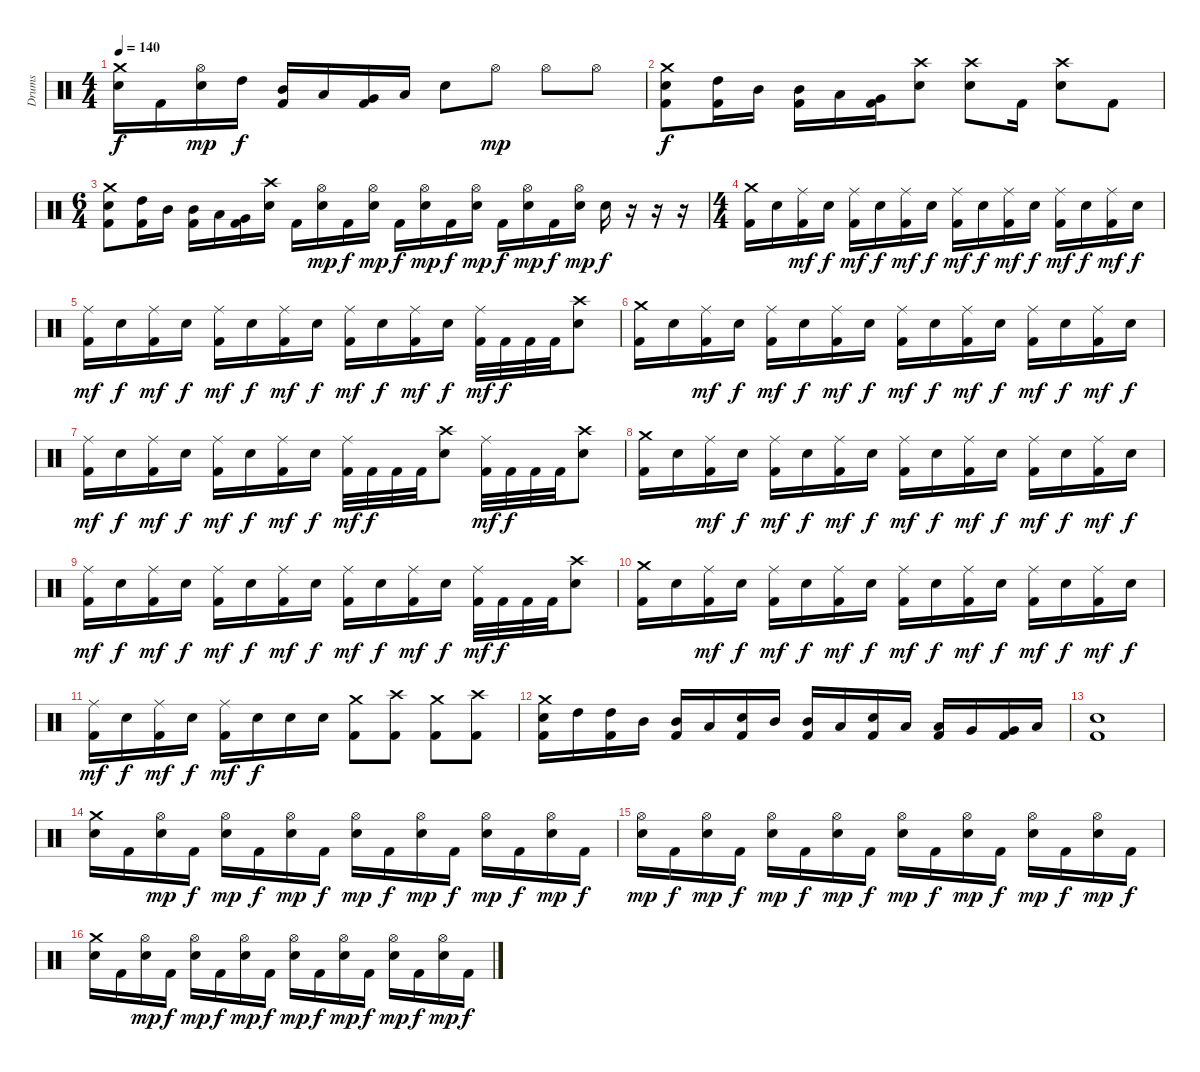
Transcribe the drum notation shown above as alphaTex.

\track ("Drums" "Drums") {instrument percussion}
\staff {score}
\articulation defaults
\ts (4 4)
\tempo 140
\clef neutral
\ks c
("Crash medium (hit)" "Snare (hit) 2").16{dy f} "Kick (hit) 2".16 ("Hi-Hat (open)" "Snare (hit) 2").16{dy mp} "High Tom (hit)".16{dy f} ("Mid Tom (hit)" "Kick (hit) 2").16 "Low Tom (hit)".16 ("Very Low Tom (hit)" "Kick (hit) 2").16 "Low Floor Tom (hit)".16 "Snare (hit) 2".8 "Hi-Hat (open)".8{dy mp} "Hi-Hat (open)".8 "Hi-Hat (open)".8 |
("Crash medium (hit)" "Snare (hit) 2" "Kick (hit) 2").8{dy f} ("High Tom (hit)" "Kick (hit) 2").16 "Mid Tom (hit)".16 ("Mid Tom (hit)" "Kick (hit) 2").16 "Low Tom (hit)".16 ("Very Low Tom (hit)" "Kick (hit) 2").16 ("Crash high (hit)" "Snare (hit) 2").8 ("Crash high (hit)" "Snare (hit) 2").8 "Kick (hit) 2".16 ("Crash high (hit)" "Snare (hit) 2").8 "Kick (hit) 2".8 |
\ts (6 4)
("Crash medium (hit)" "Snare (hit) 2" "Kick (hit) 2").8 ("High Tom (hit)" "Kick (hit) 2").16 "Mid Tom (hit)".16 ("Mid Tom (hit)" "Kick (hit) 2").16 "Low Tom (hit)".16 ("Very Low Tom (hit)" "Kick (hit) 2").16 ("Crash high (hit)" "Snare (hit) 2").16 "Kick (hit) 2".16 ("Hi-Hat (open)" "Snare (hit) 2").16{dy mp} "Kick (hit) 2".16{dy f} ("Hi-Hat (open)" "Snare (hit) 2").16{dy mp} "Kick (hit) 2".16{dy f} ("Hi-Hat (open)" "Snare (hit) 2").16{dy mp} "Kick (hit) 2".16{dy f} ("Hi-Hat (open)" "Snare (hit) 2").16{dy mp} "Kick (hit) 2".16{dy f} ("Hi-Hat (open)" "Snare (hit) 2").16{dy mp} "Kick (hit) 2".16{dy f} ("Hi-Hat (open)" "Snare (hit) 2").16{dy mp} "Snare (hit) 2".16{dy f} r.16 r.16 r.16 |
\ts (4 4)
("Crash medium (hit)" "Kick (hit) 2").16 "Snare (hit) 2".16 ("Ride (middle)" "Kick (hit) 2").16{dy mf} "Snare (hit) 2".16{dy f} ("Ride (middle)" "Kick (hit) 2").16{dy mf} "Snare (hit) 2".16{dy f} ("Ride (middle)" "Kick (hit) 2").16{dy mf} "Snare (hit) 2".16{dy f} ("Ride (middle)" "Kick (hit) 2").16{dy mf} "Snare (hit) 2".16{dy f} ("Ride (middle)" "Kick (hit) 2").16{dy mf} "Snare (hit) 2".16{dy f} ("Ride (middle)" "Kick (hit) 2").16{dy mf} "Snare (hit) 2".16{dy f} ("Ride (middle)" "Kick (hit) 2").16{dy mf} "Snare (hit) 2".16{dy f} |
("Ride (middle)" "Kick (hit) 2").16{dy mf} "Snare (hit) 2".16{dy f} ("Ride (middle)" "Kick (hit) 2").16{dy mf} "Snare (hit) 2".16{dy f} ("Ride (middle)" "Kick (hit) 2").16{dy mf} "Snare (hit) 2".16{dy f} ("Ride (middle)" "Kick (hit) 2").16{dy mf} "Snare (hit) 2".16{dy f} ("Ride (middle)" "Kick (hit) 2").16{dy mf} "Snare (hit) 2".16{dy f} ("Ride (middle)" "Kick (hit) 2").16{dy mf} "Snare (hit) 2".16{dy f} ("Ride (middle)" "Kick (hit) 2").32{dy mf} "Kick (hit) 2".32{dy f} "Kick (hit) 2".32 "Kick (hit) 2".32 ("Crash high (hit)" "Snare (hit) 2").8 |
("Crash medium (hit)" "Kick (hit) 2").16 "Snare (hit) 2".16 ("Ride (middle)" "Kick (hit) 2").16{dy mf} "Snare (hit) 2".16{dy f} ("Ride (middle)" "Kick (hit) 2").16{dy mf} "Snare (hit) 2".16{dy f} ("Ride (middle)" "Kick (hit) 2").16{dy mf} "Snare (hit) 2".16{dy f} ("Ride (middle)" "Kick (hit) 2").16{dy mf} "Snare (hit) 2".16{dy f} ("Ride (middle)" "Kick (hit) 2").16{dy mf} "Snare (hit) 2".16{dy f} ("Ride (middle)" "Kick (hit) 2").16{dy mf} "Snare (hit) 2".16{dy f} ("Ride (middle)" "Kick (hit) 2").16{dy mf} "Snare (hit) 2".16{dy f} |
("Ride (middle)" "Kick (hit) 2").16{dy mf} "Snare (hit) 2".16{dy f} ("Ride (middle)" "Kick (hit) 2").16{dy mf} "Snare (hit) 2".16{dy f} ("Ride (middle)" "Kick (hit) 2").16{dy mf} "Snare (hit) 2".16{dy f} ("Ride (middle)" "Kick (hit) 2").16{dy mf} "Snare (hit) 2".16{dy f} ("Ride (middle)" "Kick (hit) 2").32{dy mf} "Kick (hit) 2".32{dy f} "Kick (hit) 2".32 "Kick (hit) 2".32 ("Crash high (hit)" "Snare (hit) 2").8 ("Ride (middle)" "Kick (hit) 2").32{dy mf} "Kick (hit) 2".32{dy f} "Kick (hit) 2".32 "Kick (hit) 2".32 ("Crash high (hit)" "Snare (hit) 2").8 |
("Crash medium (hit)" "Kick (hit) 2").16 "Snare (hit) 2".16 ("Ride (middle)" "Kick (hit) 2").16{dy mf} "Snare (hit) 2".16{dy f} ("Ride (middle)" "Kick (hit) 2").16{dy mf} "Snare (hit) 2".16{dy f} ("Ride (middle)" "Kick (hit) 2").16{dy mf} "Snare (hit) 2".16{dy f} ("Ride (middle)" "Kick (hit) 2").16{dy mf} "Snare (hit) 2".16{dy f} ("Ride (middle)" "Kick (hit) 2").16{dy mf} "Snare (hit) 2".16{dy f} ("Ride (middle)" "Kick (hit) 2").16{dy mf} "Snare (hit) 2".16{dy f} ("Ride (middle)" "Kick (hit) 2").16{dy mf} "Snare (hit) 2".16{dy f} |
("Ride (middle)" "Kick (hit) 2").16{dy mf} "Snare (hit) 2".16{dy f} ("Ride (middle)" "Kick (hit) 2").16{dy mf} "Snare (hit) 2".16{dy f} ("Ride (middle)" "Kick (hit) 2").16{dy mf} "Snare (hit) 2".16{dy f} ("Ride (middle)" "Kick (hit) 2").16{dy mf} "Snare (hit) 2".16{dy f} ("Ride (middle)" "Kick (hit) 2").16{dy mf} "Snare (hit) 2".16{dy f} ("Ride (middle)" "Kick (hit) 2").16{dy mf} "Snare (hit) 2".16{dy f} ("Ride (middle)" "Kick (hit) 2").32{dy mf} "Kick (hit) 2".32{dy f} "Kick (hit) 2".32 "Kick (hit) 2".32 ("Crash high (hit)" "Snare (hit) 2").8 |
("Crash medium (hit)" "Kick (hit) 2").16 "Snare (hit) 2".16 ("Ride (middle)" "Kick (hit) 2").16{dy mf} "Snare (hit) 2".16{dy f} ("Ride (middle)" "Kick (hit) 2").16{dy mf} "Snare (hit) 2".16{dy f} ("Ride (middle)" "Kick (hit) 2").16{dy mf} "Snare (hit) 2".16{dy f} ("Ride (middle)" "Kick (hit) 2").16{dy mf} "Snare (hit) 2".16{dy f} ("Ride (middle)" "Kick (hit) 2").16{dy mf} "Snare (hit) 2".16{dy f} ("Ride (middle)" "Kick (hit) 2").16{dy mf} "Snare (hit) 2".16{dy f} ("Ride (middle)" "Kick (hit) 2").16{dy mf} "Snare (hit) 2".16{dy f} |
("Ride (middle)" "Kick (hit) 2").16{dy mf} "Snare (hit) 2".16{dy f} ("Ride (middle)" "Kick (hit) 2").16{dy mf} "Snare (hit) 2".16{dy f} ("Ride (middle)" "Kick (hit) 2").16{dy mf} "Snare (hit) 2".16{dy f} "Snare (hit) 2".16 "Snare (hit) 2".16 ("Crash medium (hit)" "Kick (hit) 2").8 ("Crash high (hit)" "Kick (hit) 2").8 ("Crash medium (hit)" "Kick (hit) 2").8 ("Crash high (hit)" "Kick (hit) 2").8 |
("Crash medium (hit)" "Snare (hit) 2" "Kick (hit) 2").16 "High Tom (hit)".16 ("High Tom (hit)" "Kick (hit) 2").16 "Mid Tom (hit)".16 ("Mid Tom (hit)" "Kick (hit) 2").16 "Low Tom (hit)".16 ("Snare (hit) 2" "Kick (hit) 2").16 "Mid Tom (hit)".16 ("Mid Tom (hit)" "Kick (hit) 2").16 "Low Tom (hit)".16 ("Snare (hit) 2" "Kick (hit) 2").16 "Low Tom (hit)".16 ("Low Tom (hit)" "Kick (hit) 2").16 "Very Low Tom (hit)".16 ("Very Low Tom (hit)" "Kick (hit) 2").16 "Low Floor Tom (hit)".16 |
("Snare (hit) 2" "Kick (hit) 2").1 |
("Crash medium (hit)" "Snare (hit) 2").16 "Kick (hit) 2".16 ("Hi-Hat (open)" "Snare (hit) 2").16{dy mp} "Kick (hit) 2".16{dy f} ("Hi-Hat (open)" "Snare (hit) 2").16{dy mp} "Kick (hit) 2".16{dy f} ("Hi-Hat (open)" "Snare (hit) 2").16{dy mp} "Kick (hit) 2".16{dy f} ("Hi-Hat (open)" "Snare (hit) 2").16{dy mp} "Kick (hit) 2".16{dy f} ("Hi-Hat (open)" "Snare (hit) 2").16{dy mp} "Kick (hit) 2".16{dy f} ("Hi-Hat (open)" "Snare (hit) 2").16{dy mp} "Kick (hit) 2".16{dy f} ("Hi-Hat (open)" "Snare (hit) 2").16{dy mp} "Kick (hit) 2".16{dy f} |
("Hi-Hat (open)" "Snare (hit) 2").16{dy mp} "Kick (hit) 2".16{dy f} ("Hi-Hat (open)" "Snare (hit) 2").16{dy mp} "Kick (hit) 2".16{dy f} ("Hi-Hat (open)" "Snare (hit) 2").16{dy mp} "Kick (hit) 2".16{dy f} ("Hi-Hat (open)" "Snare (hit) 2").16{dy mp} "Kick (hit) 2".16{dy f} ("Hi-Hat (open)" "Snare (hit) 2").16{dy mp} "Kick (hit) 2".16{dy f} ("Hi-Hat (open)" "Snare (hit) 2").16{dy mp} "Kick (hit) 2".16{dy f} ("Hi-Hat (open)" "Snare (hit) 2").16{dy mp} "Kick (hit) 2".16{dy f} ("Hi-Hat (open)" "Snare (hit) 2").16{dy mp} "Kick (hit) 2".16{dy f} |
("Crash medium (hit)" "Snare (hit) 2").16 "Kick (hit) 2".16 ("Hi-Hat (open)" "Snare (hit) 2").16{dy mp} "Kick (hit) 2".16{dy f} ("Hi-Hat (open)" "Snare (hit) 2").16{dy mp} "Kick (hit) 2".16{dy f} ("Hi-Hat (open)" "Snare (hit) 2").16{dy mp} "Kick (hit) 2".16{dy f} ("Hi-Hat (open)" "Snare (hit) 2").16{dy mp} "Kick (hit) 2".16{dy f} ("Hi-Hat (open)" "Snare (hit) 2").16{dy mp} "Kick (hit) 2".16{dy f} ("Hi-Hat (open)" "Snare (hit) 2").16{dy mp} "Kick (hit) 2".16{dy f} ("Hi-Hat (open)" "Snare (hit) 2").16{dy mp} "Kick (hit) 2".16{dy f}
